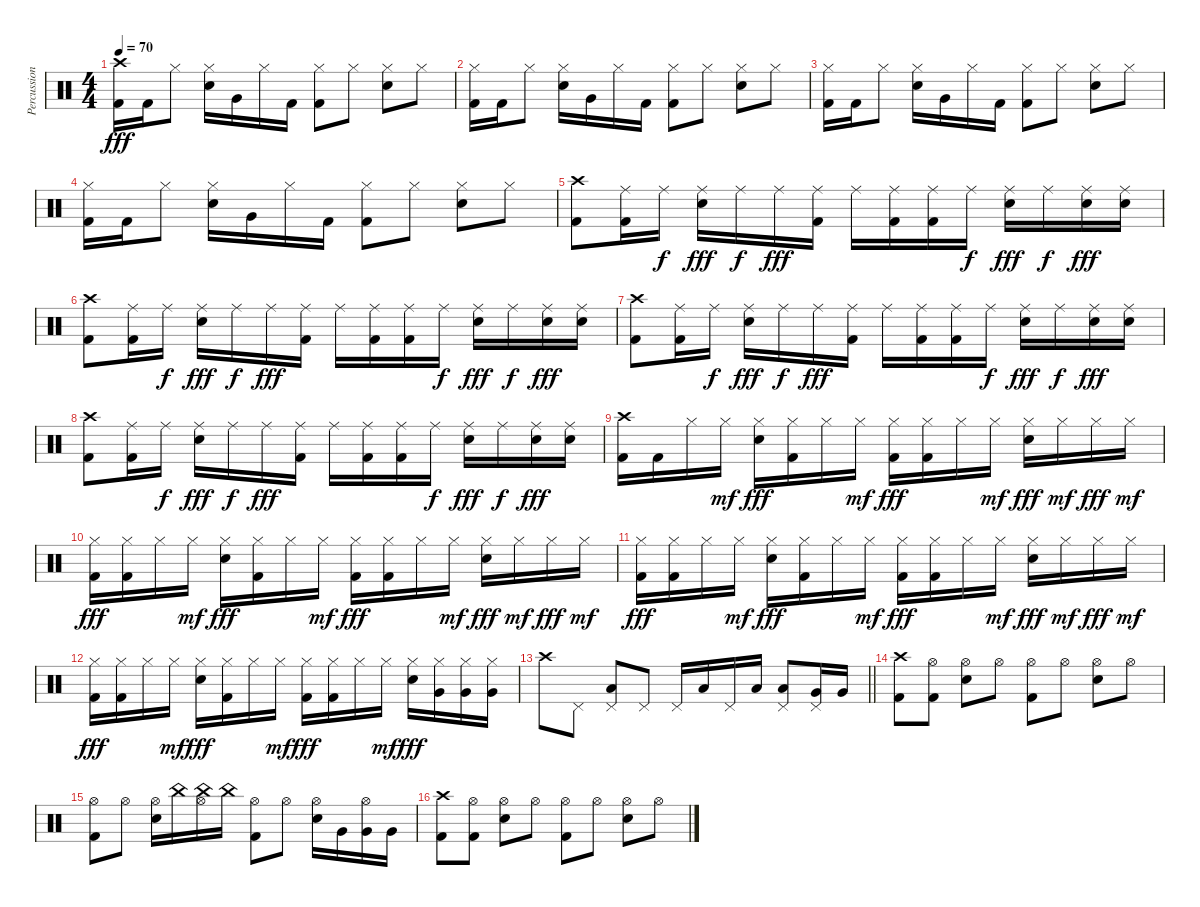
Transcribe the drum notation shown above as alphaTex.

\track ("Percussion" "Percussion") {instrument percussion}
\staff {score}
\articulation defaults
\ts (4 4)
\tempo 70
\clef neutral
\ks c
("Crash high (hit)" "Kick (hit) 2").16{dy fff} "Kick (hit) 2".16 "Hi-Hat (closed)".8 ("Hi-Hat (closed)" "Snare (hit) 2").16 "Very Low Tom (hit)".16 "Hi-Hat (closed)".16 "Kick (hit) 2".16 ("Hi-Hat (closed)" "Kick (hit) 2").8 "Hi-Hat (closed)".8 ("Hi-Hat (closed)" "Snare (hit) 2").8 "Hi-Hat (closed)".8 |
("Hi-Hat (closed)" "Kick (hit) 2").16 "Kick (hit) 2".16 "Hi-Hat (closed)".8 ("Hi-Hat (closed)" "Snare (hit) 2").16 "Very Low Tom (hit)".16 "Hi-Hat (closed)".16 "Kick (hit) 2".16 ("Hi-Hat (closed)" "Kick (hit) 2").8 "Hi-Hat (closed)".8 ("Hi-Hat (closed)" "Snare (hit) 2").8 "Hi-Hat (closed)".8 |
("Hi-Hat (closed)" "Kick (hit) 2").16 "Kick (hit) 2".16 "Hi-Hat (closed)".8 ("Hi-Hat (closed)" "Snare (hit) 2").16 "Very Low Tom (hit)".16 "Hi-Hat (closed)".16 "Kick (hit) 2".16 ("Hi-Hat (closed)" "Kick (hit) 2").8 "Hi-Hat (closed)".8 ("Hi-Hat (closed)" "Snare (hit) 2").8 "Hi-Hat (closed)".8 |
("Hi-Hat (closed)" "Kick (hit) 2").16 "Kick (hit) 2".16 "Hi-Hat (closed)".8 ("Hi-Hat (closed)" "Snare (hit) 2").16 "Very Low Tom (hit)".16 "Hi-Hat (closed)".16 "Kick (hit) 2".16 ("Hi-Hat (closed)" "Kick (hit) 2").8 "Hi-Hat (closed)".8 ("Hi-Hat (closed)" "Snare (hit) 2").8 "Hi-Hat (closed)".8 |
("Crash high (hit)" "Kick (hit) 2").8 ("Ride (middle)" "Kick (hit) 2").16 "Ride (middle)".16{dy f} ("Ride (middle)" "Snare (hit) 2").16{dy fff} "Ride (middle)".16{dy f} "Ride (middle)".16{dy fff} ("Ride (middle)" "Kick (hit) 2").16 "Ride (middle)".16 ("Ride (middle)" "Kick (hit) 2").16 ("Ride (middle)" "Kick (hit) 2").16 "Ride (middle)".16{dy f} ("Ride (middle)" "Snare (hit) 2").16{dy fff} "Ride (middle)".16{dy f} ("Ride (middle)" "Snare (hit) 2").16{dy fff} ("Ride (middle)" "Snare (hit) 2").16 |
("Crash high (hit)" "Kick (hit) 2").8 ("Ride (middle)" "Kick (hit) 2").16 "Ride (middle)".16{dy f} ("Ride (middle)" "Snare (hit) 2").16{dy fff} "Ride (middle)".16{dy f} "Ride (middle)".16{dy fff} ("Ride (middle)" "Kick (hit) 2").16 "Ride (middle)".16 ("Ride (middle)" "Kick (hit) 2").16 ("Ride (middle)" "Kick (hit) 2").16 "Ride (middle)".16{dy f} ("Ride (middle)" "Snare (hit) 2").16{dy fff} "Ride (middle)".16{dy f} ("Ride (middle)" "Snare (hit) 2").16{dy fff} ("Ride (middle)" "Snare (hit) 2").16 |
("Crash high (hit)" "Kick (hit) 2").8 ("Ride (middle)" "Kick (hit) 2").16 "Ride (middle)".16{dy f} ("Ride (middle)" "Snare (hit) 2").16{dy fff} "Ride (middle)".16{dy f} "Ride (middle)".16{dy fff} ("Ride (middle)" "Kick (hit) 2").16 "Ride (middle)".16 ("Ride (middle)" "Kick (hit) 2").16 ("Ride (middle)" "Kick (hit) 2").16 "Ride (middle)".16{dy f} ("Ride (middle)" "Snare (hit) 2").16{dy fff} "Ride (middle)".16{dy f} ("Ride (middle)" "Snare (hit) 2").16{dy fff} ("Ride (middle)" "Snare (hit) 2").16 |
("Crash high (hit)" "Kick (hit) 2").8 ("Ride (middle)" "Kick (hit) 2").16 "Ride (middle)".16{dy f} ("Ride (middle)" "Snare (hit) 2").16{dy fff} "Ride (middle)".16{dy f} "Ride (middle)".16{dy fff} ("Ride (middle)" "Kick (hit) 2").16 "Ride (middle)".16 ("Ride (middle)" "Kick (hit) 2").16 ("Ride (middle)" "Kick (hit) 2").16 "Ride (middle)".16{dy f} ("Ride (middle)" "Snare (hit) 2").16{dy fff} "Ride (middle)".16{dy f} ("Ride (middle)" "Snare (hit) 2").16{dy fff} ("Ride (middle)" "Snare (hit) 2").16 |
("Crash high (hit)" "Kick (hit) 2").16 "Kick (hit) 2".16 "Hi-Hat (closed)".16 "Hi-Hat (closed)".16{dy mf} ("Hi-Hat (closed)" "Snare (hit) 2").16{dy fff} ("Hi-Hat (closed)" "Kick (hit) 2").16 "Hi-Hat (closed)".16 "Hi-Hat (closed)".16{dy mf} ("Hi-Hat (closed)" "Kick (hit) 2").16{dy fff} ("Hi-Hat (closed)" "Kick (hit) 2").16 "Hi-Hat (closed)".16 "Hi-Hat (closed)".16{dy mf} ("Hi-Hat (closed)" "Snare (hit) 2").16{dy fff} "Hi-Hat (closed)".16{dy mf} "Hi-Hat (closed)".16{dy fff} "Hi-Hat (closed)".16{dy mf} |
("Hi-Hat (closed)" "Kick (hit) 2").16{dy fff} ("Hi-Hat (closed)" "Kick (hit) 2").16 "Hi-Hat (closed)".16 "Hi-Hat (closed)".16{dy mf} ("Hi-Hat (closed)" "Snare (hit) 2").16{dy fff} ("Hi-Hat (closed)" "Kick (hit) 2").16 "Hi-Hat (closed)".16 "Hi-Hat (closed)".16{dy mf} ("Hi-Hat (closed)" "Kick (hit) 2").16{dy fff} ("Hi-Hat (closed)" "Kick (hit) 2").16 "Hi-Hat (closed)".16 "Hi-Hat (closed)".16{dy mf} ("Hi-Hat (closed)" "Snare (hit) 2").16{dy fff} "Hi-Hat (closed)".16{dy mf} "Hi-Hat (closed)".16{dy fff} "Hi-Hat (closed)".16{dy mf} |
("Hi-Hat (closed)" "Kick (hit) 2").16{dy fff} ("Hi-Hat (closed)" "Kick (hit) 2").16 "Hi-Hat (closed)".16 "Hi-Hat (closed)".16{dy mf} ("Hi-Hat (closed)" "Snare (hit) 2").16{dy fff} ("Hi-Hat (closed)" "Kick (hit) 2").16 "Hi-Hat (closed)".16 "Hi-Hat (closed)".16{dy mf} ("Hi-Hat (closed)" "Kick (hit) 2").16{dy fff} ("Hi-Hat (closed)" "Kick (hit) 2").16 "Hi-Hat (closed)".16 "Hi-Hat (closed)".16{dy mf} ("Hi-Hat (closed)" "Snare (hit) 2").16{dy fff} "Hi-Hat (closed)".16{dy mf} "Hi-Hat (closed)".16{dy fff} "Hi-Hat (closed)".16{dy mf} |
("Hi-Hat (closed)" "Kick (hit) 2").16{dy fff} ("Hi-Hat (closed)" "Kick (hit) 2").16 "Hi-Hat (closed)".16 "Hi-Hat (closed)".16{dy mf} ("Hi-Hat (closed)" "Snare (hit) 2").16{dy fff} ("Hi-Hat (closed)" "Kick (hit) 2").16 "Hi-Hat (closed)".16 "Hi-Hat (closed)".16{dy mf} ("Hi-Hat (closed)" "Kick (hit) 2").16{dy fff} ("Hi-Hat (closed)" "Kick (hit) 2").16 "Hi-Hat (closed)".16 "Hi-Hat (closed)".16{dy mf} ("Hi-Hat (closed)" "Snare (hit) 2").16{dy fff} ("Hi-Hat (closed)" "Very Low Tom (hit)").16 ("Hi-Hat (closed)" "Very Low Tom (hit)").16 ("Hi-Hat (closed)" "Very Low Tom (hit)").16 |
\barLineRight lightlight "Crash high (hit)".8 "Pedal Hi-Hat (hit)".8
("Pedal Hi-Hat (hit)" "Low Tom (hit)").8 "Pedal Hi-Hat (hit)".8 "Pedal Hi-Hat (hit)".16 "Low Tom (hit)".16 "Pedal Hi-Hat (hit)".16 "Low Tom (hit)".16 ("Pedal Hi-Hat (hit)" "Low Tom (hit)").8 ("Pedal Hi-Hat (hit)" "Very Low Tom (hit)").16 "Very Low Tom (hit)".16 |
("Crash high (hit)" "Kick (hit) 2").8 ("Hi-Hat (open)" "Kick (hit) 2").8 ("Hi-Hat (open)" "Snare (hit) 2").8 "Hi-Hat (open)".8 ("Hi-Hat (open)" "Kick (hit) 2").8 "Hi-Hat (open)".8 ("Hi-Hat (open)" "Snare (hit) 2").8 "Hi-Hat (open)".8 |
("Hi-Hat (open)" "Kick (hit) 2").8 "Hi-Hat (open)".8 ("Hi-Hat (open)" "Snare (hit) 2").16 "China (hit)".16 ("Hi-Hat (open)" "China (hit)").16 "China (hit)".16 ("Hi-Hat (open)" "Kick (hit) 2").8 "Hi-Hat (open)".8 ("Hi-Hat (open)" "Snare (hit) 2").16 "Very Low Tom (hit)".16 ("Hi-Hat (open)" "Very Low Tom (hit)").16 "Very Low Tom (hit)".16 |
("Crash high (hit)" "Kick (hit) 2").8 ("Hi-Hat (open)" "Kick (hit) 2").8 ("Hi-Hat (open)" "Snare (hit) 2").8 "Hi-Hat (open)".8 ("Hi-Hat (open)" "Kick (hit) 2").8 "Hi-Hat (open)".8 ("Hi-Hat (open)" "Snare (hit) 2").8 "Hi-Hat (open)".8
